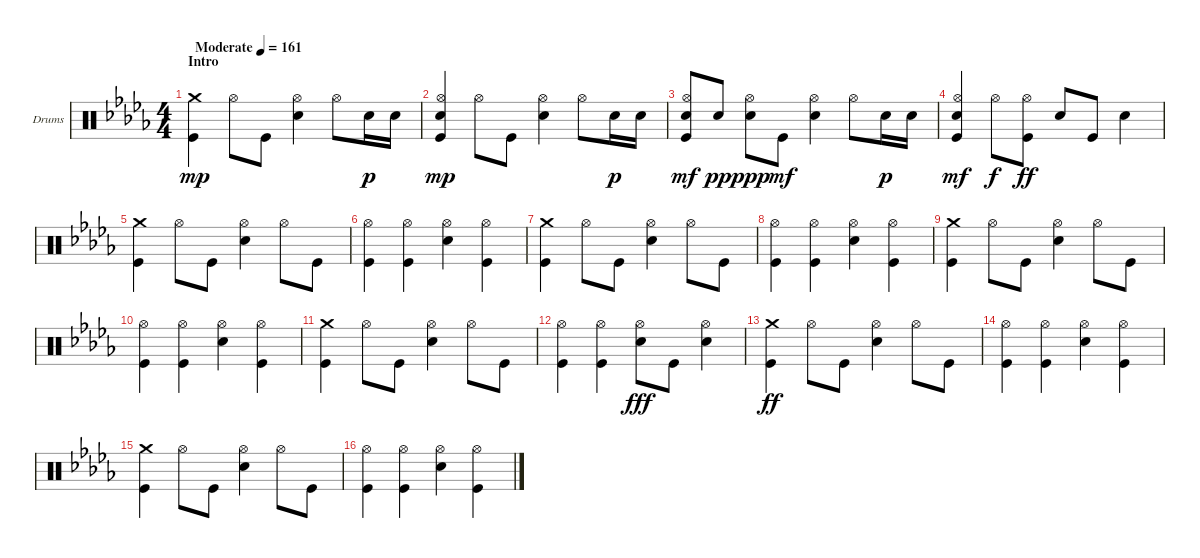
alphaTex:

\bracketExtendMode groupsimilarinstruments
\firstSystemTrackNameOrientation horizontal
\otherSystemsTrackNameOrientation horizontal
\track ("Drumkit" "Drums") {instrument percussion}
\staff {score}
\articulation defaults
\ts (4 4)
\beaming (8 2 2 2 2)
\section ("" "Intro")
\tempo (161 "Moderate")
\clef neutral
\ks db
("Kick (hit)" "Crash medium (hit)").4{dy mp} "Hi-Hat (open)".8 "Kick (hit)".8 ("Snare (hit) 2" "Hi-Hat (open)").4 "Hi-Hat (open)".8 "Snare (hit) 2".16{dy p} "Snare (hit) 2".16 |
("Kick (hit)" "Hi-Hat (open)" "Snare (hit) 2").4{dy mp} "Hi-Hat (open)".8 "Kick (hit)".8 ("Snare (hit) 2" "Hi-Hat (open)").4 "Hi-Hat (open)".8 "Snare (hit) 2".16{dy p} "Snare (hit) 2".16 |
("Kick (hit)" "Hi-Hat (open)" "Snare (hit) 2").8{dy mf} "Snare (hit) 2".8{dy pp} ("Snare (hit) 2" "Hi-Hat (open)").8{dy ppp} "Kick (hit)".8{dy mf} ("Snare (hit) 2" "Hi-Hat (open)").4 "Hi-Hat (open)".8 "Snare (hit) 2".16{dy p} "Snare (hit) 2".16 |
("Kick (hit)" "Hi-Hat (open)" "Snare (hit) 2").4{dy mf} "Hi-Hat (open)".8{dy f} ("Kick (hit)" "Hi-Hat (open)").8{dy ff} "Snare (hit) 2".8 "Kick (hit)".8 "Snare (hit) 2".4 |
("Kick (hit)" "Crash medium (hit)").4 "Hi-Hat (open)".8 "Kick (hit)".8 ("Snare (hit) 2" "Hi-Hat (open)").4 "Hi-Hat (open)".8 "Kick (hit)".8 |
("Kick (hit)" "Hi-Hat (open)").4 ("Kick (hit)" "Hi-Hat (open)").4 ("Snare (hit) 2" "Hi-Hat (open)").4 ("Kick (hit)" "Hi-Hat (open)").4 |
("Kick (hit)" "Crash medium (hit)").4 "Hi-Hat (open)".8 "Kick (hit)".8 ("Snare (hit) 2" "Hi-Hat (open)").4 "Hi-Hat (open)".8 "Kick (hit)".8 |
("Kick (hit)" "Hi-Hat (open)").4 ("Kick (hit)" "Hi-Hat (open)").4 ("Snare (hit) 2" "Hi-Hat (open)").4 ("Kick (hit)" "Hi-Hat (open)").4 |
("Kick (hit)" "Crash medium (hit)").4 "Hi-Hat (open)".8 "Kick (hit)".8 ("Snare (hit) 2" "Hi-Hat (open)").4 "Hi-Hat (open)".8 "Kick (hit)".8 |
("Kick (hit)" "Hi-Hat (open)").4 ("Kick (hit)" "Hi-Hat (open)").4 ("Snare (hit) 2" "Hi-Hat (open)").4 ("Kick (hit)" "Hi-Hat (open)").4 |
("Kick (hit)" "Crash medium (hit)").4 "Hi-Hat (open)".8 "Kick (hit)".8 ("Snare (hit) 2" "Hi-Hat (open)").4 "Hi-Hat (open)".8 "Kick (hit)".8 |
("Kick (hit)" "Hi-Hat (open)").4 ("Kick (hit)" "Hi-Hat (open)").4 ("Snare (hit) 2" "Hi-Hat (open)").8{dy fff} "Kick (hit)".8 ("Snare (hit) 2" "Hi-Hat (open)").4 |
("Kick (hit)" "Crash medium (hit)").4{dy ff} "Hi-Hat (open)".8 "Kick (hit)".8 ("Snare (hit) 2" "Hi-Hat (open)").4 "Hi-Hat (open)".8 "Kick (hit)".8 |
("Kick (hit)" "Hi-Hat (open)").4 ("Kick (hit)" "Hi-Hat (open)").4 ("Snare (hit) 2" "Hi-Hat (open)").4 ("Kick (hit)" "Hi-Hat (open)").4 |
("Kick (hit)" "Crash medium (hit)").4 "Hi-Hat (open)".8 "Kick (hit)".8 ("Snare (hit) 2" "Hi-Hat (open)").4 "Hi-Hat (open)".8 "Kick (hit)".8 |
("Kick (hit)" "Hi-Hat (open)").4 ("Kick (hit)" "Hi-Hat (open)").4 ("Snare (hit) 2" "Hi-Hat (open)").4 ("Kick (hit)" "Hi-Hat (open)").4
